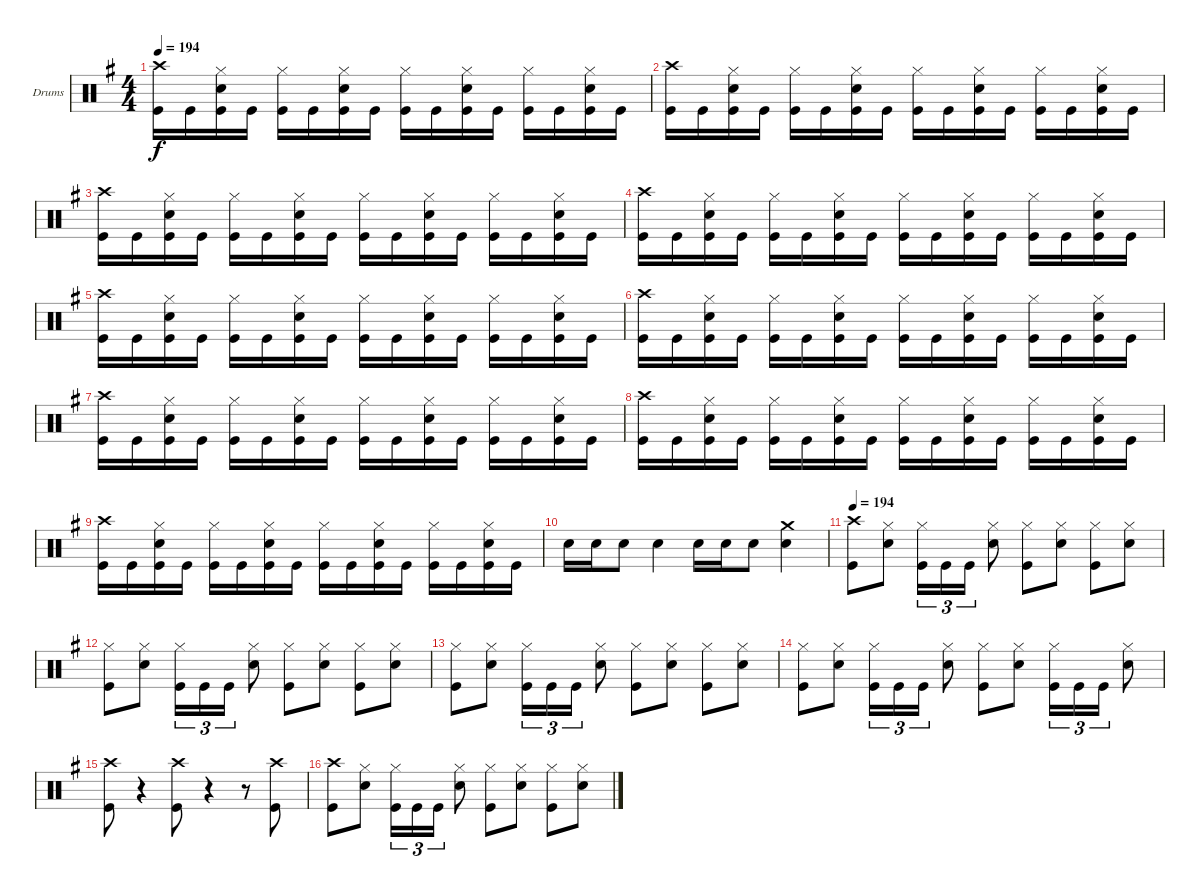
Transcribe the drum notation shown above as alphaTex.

\bracketExtendMode groupsimilarinstruments
\firstSystemTrackNameOrientation horizontal
\otherSystemsTrackNameOrientation horizontal
\track ("Drumkit" "Drums") {instrument percussion}
\staff {score}
\articulation defaults
\ts (4 4)
\tempo 194
\clef neutral
\scale
1.04288
\ks g
("Crash high (hit)" "Kick (hit)").16{dy f} "Kick (hit)".16 ("Hi-Hat (closed)" "Snare (hit) 2" "Kick (hit)").16 "Kick (hit)".16 ("Hi-Hat (closed)" "Kick (hit)").16 "Kick (hit)".16 ("Hi-Hat (closed)" "Snare (hit) 2" "Kick (hit)").16 "Kick (hit)".16 ("Hi-Hat (closed)" "Kick (hit)").16 "Kick (hit)".16 ("Hi-Hat (closed)" "Snare (hit) 2" "Kick (hit)").16 "Kick (hit)".16 ("Hi-Hat (closed)" "Kick (hit)").16 "Kick (hit)".16 ("Hi-Hat (closed)" "Snare (hit) 2" "Kick (hit)").16 "Kick (hit)".16 |
\scale
0.957125 ("Crash high (hit)" "Kick (hit)").16 "Kick (hit)".16 ("Hi-Hat (closed)" "Snare (hit) 2" "Kick (hit)").16 "Kick (hit)".16 ("Hi-Hat (closed)" "Kick (hit)").16 "Kick (hit)".16 ("Hi-Hat (closed)" "Snare (hit) 2" "Kick (hit)").16 "Kick (hit)".16 ("Hi-Hat (closed)" "Kick (hit)").16 "Kick (hit)".16 ("Hi-Hat (closed)" "Snare (hit) 2" "Kick (hit)").16 "Kick (hit)".16 ("Hi-Hat (closed)" "Kick (hit)").16 "Kick (hit)".16 ("Hi-Hat (closed)" "Snare (hit) 2" "Kick (hit)").16 "Kick (hit)".16 |
\scale
1.04288 ("Crash high (hit)" "Kick (hit)").16 "Kick (hit)".16 ("Hi-Hat (closed)" "Snare (hit) 2" "Kick (hit)").16 "Kick (hit)".16 ("Hi-Hat (closed)" "Kick (hit)").16 "Kick (hit)".16 ("Hi-Hat (closed)" "Snare (hit) 2" "Kick (hit)").16 "Kick (hit)".16 ("Hi-Hat (closed)" "Kick (hit)").16 "Kick (hit)".16 ("Hi-Hat (closed)" "Snare (hit) 2" "Kick (hit)").16 "Kick (hit)".16 ("Hi-Hat (closed)" "Kick (hit)").16 "Kick (hit)".16 ("Hi-Hat (closed)" "Snare (hit) 2" "Kick (hit)").16 "Kick (hit)".16 |
\scale
0.957125 ("Crash high (hit)" "Kick (hit)").16 "Kick (hit)".16 ("Hi-Hat (closed)" "Snare (hit) 2" "Kick (hit)").16 "Kick (hit)".16 ("Hi-Hat (closed)" "Kick (hit)").16 "Kick (hit)".16 ("Hi-Hat (closed)" "Snare (hit) 2" "Kick (hit)").16 "Kick (hit)".16 ("Hi-Hat (closed)" "Kick (hit)").16 "Kick (hit)".16 ("Hi-Hat (closed)" "Snare (hit) 2" "Kick (hit)").16 "Kick (hit)".16 ("Hi-Hat (closed)" "Kick (hit)").16 "Kick (hit)".16 ("Hi-Hat (closed)" "Snare (hit) 2" "Kick (hit)").16 "Kick (hit)".16 |
\scale
1.04288 ("Crash high (hit)" "Kick (hit)").16 "Kick (hit)".16 ("Hi-Hat (closed)" "Snare (hit) 2" "Kick (hit)").16 "Kick (hit)".16 ("Hi-Hat (closed)" "Kick (hit)").16 "Kick (hit)".16 ("Hi-Hat (closed)" "Snare (hit) 2" "Kick (hit)").16 "Kick (hit)".16 ("Hi-Hat (closed)" "Kick (hit)").16 "Kick (hit)".16 ("Hi-Hat (closed)" "Snare (hit) 2" "Kick (hit)").16 "Kick (hit)".16 ("Hi-Hat (closed)" "Kick (hit)").16 "Kick (hit)".16 ("Hi-Hat (closed)" "Snare (hit) 2" "Kick (hit)").16 "Kick (hit)".16 |
\scale
0.957125 ("Crash high (hit)" "Kick (hit)").16 "Kick (hit)".16 ("Hi-Hat (closed)" "Snare (hit) 2" "Kick (hit)").16 "Kick (hit)".16 ("Hi-Hat (closed)" "Kick (hit)").16 "Kick (hit)".16 ("Hi-Hat (closed)" "Snare (hit) 2" "Kick (hit)").16 "Kick (hit)".16 ("Hi-Hat (closed)" "Kick (hit)").16 "Kick (hit)".16 ("Hi-Hat (closed)" "Snare (hit) 2" "Kick (hit)").16 "Kick (hit)".16 ("Hi-Hat (closed)" "Kick (hit)").16 "Kick (hit)".16 ("Hi-Hat (closed)" "Snare (hit) 2" "Kick (hit)").16 "Kick (hit)".16 |
\scale
1.04288 ("Crash high (hit)" "Kick (hit)").16 "Kick (hit)".16 ("Hi-Hat (closed)" "Snare (hit) 2" "Kick (hit)").16 "Kick (hit)".16 ("Hi-Hat (closed)" "Kick (hit)").16 "Kick (hit)".16 ("Hi-Hat (closed)" "Snare (hit) 2" "Kick (hit)").16 "Kick (hit)".16 ("Hi-Hat (closed)" "Kick (hit)").16 "Kick (hit)".16 ("Hi-Hat (closed)" "Snare (hit) 2" "Kick (hit)").16 "Kick (hit)".16 ("Hi-Hat (closed)" "Kick (hit)").16 "Kick (hit)".16 ("Hi-Hat (closed)" "Snare (hit) 2" "Kick (hit)").16 "Kick (hit)".16 |
\scale
0.957125 ("Crash high (hit)" "Kick (hit)").16 "Kick (hit)".16 ("Hi-Hat (closed)" "Snare (hit) 2" "Kick (hit)").16 "Kick (hit)".16 ("Hi-Hat (closed)" "Kick (hit)").16 "Kick (hit)".16 ("Hi-Hat (closed)" "Snare (hit) 2" "Kick (hit)").16 "Kick (hit)".16 ("Hi-Hat (closed)" "Kick (hit)").16 "Kick (hit)".16 ("Hi-Hat (closed)" "Snare (hit) 2" "Kick (hit)").16 "Kick (hit)".16 ("Hi-Hat (closed)" "Kick (hit)").16 "Kick (hit)".16 ("Hi-Hat (closed)" "Snare (hit) 2" "Kick (hit)").16 "Kick (hit)".16 |
\scale
1.04288 ("Crash high (hit)" "Kick (hit)").16 "Kick (hit)".16 ("Hi-Hat (closed)" "Snare (hit) 2" "Kick (hit)").16 "Kick (hit)".16 ("Hi-Hat (closed)" "Kick (hit)").16 "Kick (hit)".16 ("Hi-Hat (closed)" "Snare (hit) 2" "Kick (hit)").16 "Kick (hit)".16 ("Hi-Hat (closed)" "Kick (hit)").16 "Kick (hit)".16 ("Hi-Hat (closed)" "Snare (hit) 2" "Kick (hit)").16 "Kick (hit)".16 ("Hi-Hat (closed)" "Kick (hit)").16 "Kick (hit)".16 ("Hi-Hat (closed)" "Snare (hit) 2" "Kick (hit)").16 "Kick (hit)".16 |
\scale
0.957125 "Snare (hit) 2".16 "Snare (hit) 2".16 "Snare (hit) 2".8 "Snare (hit) 2".4 "Snare (hit) 2".16 "Snare (hit) 2".16 "Snare (hit) 2".8 ("Crash medium (hit)" "Snare (hit) 2").4 |
\tempo 194
\scale
1.04288 ("Crash high (hit)" "Kick (hit)").8 ("Hi-Hat (closed)" "Snare (hit) 2").8 ("Hi-Hat (closed)" "Kick (hit)").16{tu (3 2)} "Kick (hit)".16{tu (3 2)} "Kick (hit)".16{tu (3 2)} ("Hi-Hat (closed)" "Snare (hit) 2").8 ("Hi-Hat (closed)" "Kick (hit)").8 ("Hi-Hat (closed)" "Snare (hit) 2").8 ("Hi-Hat (closed)" "Kick (hit)").8 ("Hi-Hat (closed)" "Snare (hit) 2").8 |
\scale
0.957125 ("Hi-Hat (closed)" "Kick (hit)").8 ("Hi-Hat (closed)" "Snare (hit) 2").8 ("Hi-Hat (closed)" "Kick (hit)").16{tu (3 2)} "Kick (hit)".16{tu (3 2)} "Kick (hit)".16{tu (3 2)} ("Hi-Hat (closed)" "Snare (hit) 2").8 ("Hi-Hat (closed)" "Kick (hit)").8 ("Hi-Hat (closed)" "Snare (hit) 2").8 ("Hi-Hat (closed)" "Kick (hit)").8 ("Hi-Hat (closed)" "Snare (hit) 2").8 |
\scale
1.04288 ("Hi-Hat (closed)" "Kick (hit)").8 ("Hi-Hat (closed)" "Snare (hit) 2").8 ("Hi-Hat (closed)" "Kick (hit)").16{tu (3 2)} "Kick (hit)".16{tu (3 2)} "Kick (hit)".16{tu (3 2)} ("Hi-Hat (closed)" "Snare (hit) 2").8 ("Hi-Hat (closed)" "Kick (hit)").8 ("Hi-Hat (closed)" "Snare (hit) 2").8 ("Hi-Hat (closed)" "Kick (hit)").8 ("Hi-Hat (closed)" "Snare (hit) 2").8 |
\scale
0.957125 ("Hi-Hat (closed)" "Kick (hit)").8 ("Hi-Hat (closed)" "Snare (hit) 2").8 ("Hi-Hat (closed)" "Kick (hit)").16{tu (3 2)} "Kick (hit)".16{tu (3 2)} "Kick (hit)".16{tu (3 2)} ("Hi-Hat (closed)" "Snare (hit) 2").8 ("Hi-Hat (closed)" "Kick (hit)").8 ("Hi-Hat (closed)" "Snare (hit) 2").8 ("Hi-Hat (closed)" "Kick (hit)").16{tu (3 2)} "Kick (hit)".16{tu (3 2)} "Kick (hit)".16{tu (3 2)} ("Hi-Hat (closed)" "Snare (hit) 2").8 |
\scale
1.04288 ("Crash high (hit)" "Kick (hit)").8 r.4 ("Crash high (hit)" "Kick (hit)").8 r.4 r.8 ("Crash high (hit)" "Kick (hit)").8 |
\scale
0.957125 ("Crash high (hit)" "Kick (hit)").8 ("Hi-Hat (closed)" "Snare (hit) 2").8 ("Hi-Hat (closed)" "Kick (hit)").16{tu (3 2)} "Kick (hit)".16{tu (3 2)} "Kick (hit)".16{tu (3 2)} ("Hi-Hat (closed)" "Snare (hit) 2").8 ("Hi-Hat (closed)" "Kick (hit)").8 ("Hi-Hat (closed)" "Snare (hit) 2").8 ("Hi-Hat (closed)" "Kick (hit)").8 ("Hi-Hat (closed)" "Snare (hit) 2").8
